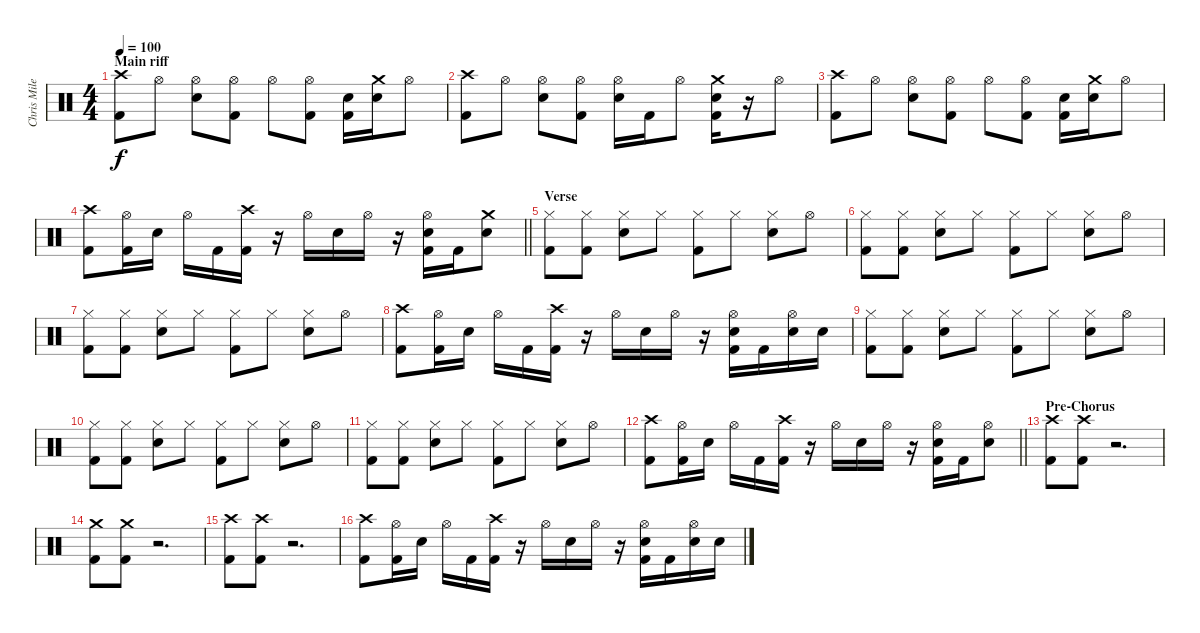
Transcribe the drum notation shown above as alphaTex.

\track ("Chris Mileski" "Chris Mile") {instrument percussion}
\staff {score}
\articulation defaults
\ts (4 4)
\section ("" "Main riff")
\tempo 100
\clef neutral
\ks c
("Crash high (hit)" "Kick (hit) 2").8{dy f} "Hi-Hat (open)".8 ("Hi-Hat (open)" "Electric Snare (hit)").8 ("Hi-Hat (open)" "Kick (hit) 2").8 "Hi-Hat (open)".8 ("Hi-Hat (open)" "Kick (hit) 2").8 ("Electric Snare (hit)" "Kick (hit) 2").16 ("Crash medium (hit)" "Electric Snare (hit)").16 "Hi-Hat (open)".8 |
("Crash high (hit)" "Kick (hit) 2").8 "Hi-Hat (open)".8 ("Hi-Hat (open)" "Electric Snare (hit)").8 ("Hi-Hat (open)" "Kick (hit) 2").8 ("Hi-Hat (open)" "Electric Snare (hit)").16 "Kick (hit) 2".16 "Hi-Hat (open)".8 ("Crash medium (hit)" "Electric Snare (hit)" "Kick (hit) 2").16 r.16 "Hi-Hat (open)".8 |
("Crash high (hit)" "Kick (hit) 2").8 "Hi-Hat (open)".8 ("Hi-Hat (open)" "Electric Snare (hit)").8 ("Hi-Hat (open)" "Kick (hit) 2").8 "Hi-Hat (open)".8 ("Hi-Hat (open)" "Kick (hit) 2").8 ("Electric Snare (hit)" "Kick (hit) 2").16 ("Crash medium (hit)" "Electric Snare (hit)").16 "Hi-Hat (open)".8 |
\barLineRight lightlight
("Crash high (hit)" "Kick (hit) 2").8 ("Hi-Hat (open)" "Kick (hit) 2").16 "Electric Snare (hit)".16 "Hi-Hat (open)".16 "Kick (hit) 2".16 ("Crash high (hit)" "Kick (hit) 2").16 r.16 "Hi-Hat (open)".16 "Electric Snare (hit)".16 "Hi-Hat (open)".16 r.16 ("Hi-Hat (open)" "Electric Snare (hit)" "Kick (hit) 2").16 "Kick (hit) 2".16 ("Crash medium (hit)" "Electric Snare (hit)").8 |
\section ("" "Verse")
("Hi-Hat (closed)" "Kick (hit) 2").8 ("Hi-Hat (closed)" "Kick (hit) 2").8 ("Hi-Hat (closed)" "Electric Snare (hit)").8 "Hi-Hat (closed)".8 ("Hi-Hat (closed)" "Kick (hit) 2").8 "Hi-Hat (closed)".8 ("Hi-Hat (closed)" "Electric Snare (hit)").8 "Hi-Hat (open)".8 |
("Hi-Hat (closed)" "Kick (hit) 2").8 ("Hi-Hat (closed)" "Kick (hit) 2").8 ("Hi-Hat (closed)" "Electric Snare (hit)").8 "Hi-Hat (closed)".8 ("Hi-Hat (closed)" "Kick (hit) 2").8 "Hi-Hat (closed)".8 ("Hi-Hat (closed)" "Electric Snare (hit)").8 "Hi-Hat (open)".8 |
("Hi-Hat (closed)" "Kick (hit) 2").8 ("Hi-Hat (closed)" "Kick (hit) 2").8 ("Hi-Hat (closed)" "Electric Snare (hit)").8 "Hi-Hat (closed)".8 ("Hi-Hat (closed)" "Kick (hit) 2").8 "Hi-Hat (closed)".8 ("Hi-Hat (closed)" "Electric Snare (hit)").8 "Hi-Hat (open)".8 |
("Crash high (hit)" "Kick (hit) 2").8 ("Hi-Hat (open)" "Kick (hit) 2").16 "Electric Snare (hit)".16 "Hi-Hat (open)".16 "Kick (hit) 2".16 ("Crash high (hit)" "Kick (hit) 2").16 r.16 "Hi-Hat (open)".16 "Electric Snare (hit)".16 "Hi-Hat (open)".16 r.16 ("Hi-Hat (open)" "Electric Snare (hit)" "Kick (hit) 2").16 "Kick (hit) 2".16 ("Hi-Hat (open)" "Electric Snare (hit)").16 "Electric Snare (hit)".16 |
("Hi-Hat (closed)" "Kick (hit) 2").8 ("Hi-Hat (closed)" "Kick (hit) 2").8 ("Hi-Hat (closed)" "Electric Snare (hit)").8 "Hi-Hat (closed)".8 ("Hi-Hat (closed)" "Kick (hit) 2").8 "Hi-Hat (closed)".8 ("Hi-Hat (closed)" "Electric Snare (hit)").8 "Hi-Hat (open)".8 |
("Hi-Hat (closed)" "Kick (hit) 2").8 ("Hi-Hat (closed)" "Kick (hit) 2").8 ("Hi-Hat (closed)" "Electric Snare (hit)").8 "Hi-Hat (closed)".8 ("Hi-Hat (closed)" "Kick (hit) 2").8 "Hi-Hat (closed)".8 ("Hi-Hat (closed)" "Electric Snare (hit)").8 "Hi-Hat (open)".8 |
("Hi-Hat (closed)" "Kick (hit) 2").8 ("Hi-Hat (closed)" "Kick (hit) 2").8 ("Hi-Hat (closed)" "Electric Snare (hit)").8 "Hi-Hat (closed)".8 ("Hi-Hat (closed)" "Kick (hit) 2").8 "Hi-Hat (closed)".8 ("Hi-Hat (closed)" "Electric Snare (hit)").8 "Hi-Hat (open)".8 |
\barLineRight lightlight
("Crash high (hit)" "Kick (hit) 2").8 ("Hi-Hat (open)" "Kick (hit) 2").16 "Electric Snare (hit)".16 "Hi-Hat (open)".16 "Kick (hit) 2".16 ("Crash high (hit)" "Kick (hit) 2").16 r.16 "Hi-Hat (open)".16 "Electric Snare (hit)".16 "Hi-Hat (open)".16 r.16 ("Hi-Hat (open)" "Electric Snare (hit)" "Kick (hit) 2").16 "Kick (hit) 2".16 ("Hi-Hat (open)" "Electric Snare (hit)").8 |
\section ("" "Pre-Chorus")
("Crash high (hit)" "Kick (hit) 2").8 ("Crash high (hit)" "Kick (hit) 2").8 r.2{d} |
("Crash medium (hit)" "Kick (hit) 2").8 ("Crash medium (hit)" "Kick (hit) 2").8 r.2{d} |
("Crash high (hit)" "Kick (hit) 2").8 ("Crash high (hit)" "Kick (hit) 2").8 r.2{d} |
("Crash high (hit)" "Kick (hit) 2").8 ("Hi-Hat (open)" "Kick (hit) 2").16 "Electric Snare (hit)".16 "Hi-Hat (open)".16 "Kick (hit) 2".16 ("Crash high (hit)" "Kick (hit) 2").16 r.16 "Hi-Hat (open)".16 "Electric Snare (hit)".16 "Hi-Hat (open)".16 r.16 ("Hi-Hat (open)" "Electric Snare (hit)" "Kick (hit) 2").16 "Kick (hit) 2".16 ("Hi-Hat (open)" "Electric Snare (hit)").16 "Electric Snare (hit)".16
